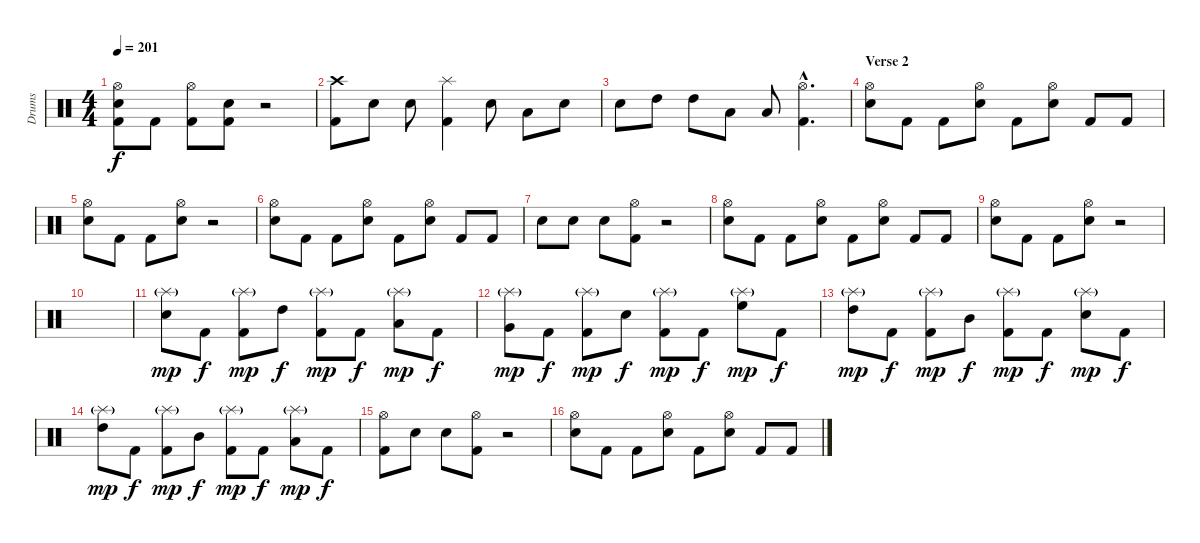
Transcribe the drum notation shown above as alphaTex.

\track ("Drums" "Drums") {instrument percussion}
\staff {score}
\articulation defaults
\ts (4 4)
\tempo 201
\clef neutral
\ks c
("Hi-Hat (open)" "Snare (hit) 2" "Kick (hit) 2").8{dy f} "Kick (hit) 2".8 ("Hi-Hat (open)" "Kick (hit) 2").8 ("Snare (hit) 2" "Kick (hit) 2").8 r.2 |
("Crash high (hit)" "Kick (hit) 2").8 "Snare (hit) 2".8 "Snare (hit) 2".8 ("Splash (hit)" "Kick (hit) 2").4 "Snare (hit) 2".8 "Low Tom (hit)".8 "Snare (hit) 2".8 |
"Snare (hit) 2".8 "High Tom (hit)".8 "High Tom (hit)".8 "Low Tom (hit)".8 "Low Tom (hit)".8 ("Hi-Hat (open)"{hac} "Kick (hit) 2"{hac}).4{d} |
\section ("" "Verse 2")
("Hi-Hat (open)" "Snare (hit) 2").8 "Kick (hit) 2".8 "Kick (hit) 2".8 ("Hi-Hat (open)" "Snare (hit) 2").8 "Kick (hit) 2".8 ("Hi-Hat (open)" "Snare (hit) 2").8 "Kick (hit) 2".8 "Kick (hit) 2".8 |
("Hi-Hat (open)" "Snare (hit) 2").8 "Kick (hit) 2".8 "Kick (hit) 2".8 ("Hi-Hat (open)" "Snare (hit) 2").8 r.2 |
("Hi-Hat (open)" "Snare (hit) 2").8 "Kick (hit) 2".8 "Kick (hit) 2".8 ("Hi-Hat (open)" "Snare (hit) 2").8 "Kick (hit) 2".8 ("Hi-Hat (open)" "Snare (hit) 2").8 "Kick (hit) 2".8 "Kick (hit) 2".8 |
"Snare (hit) 2".8 "Snare (hit) 2".8 "Snare (hit) 2".8 ("Hi-Hat (open)" "Kick (hit) 2").8 r.2 |
("Hi-Hat (open)" "Snare (hit) 2").8 "Kick (hit) 2".8 "Kick (hit) 2".8 ("Hi-Hat (open)" "Snare (hit) 2").8 "Kick (hit) 2".8 ("Hi-Hat (open)" "Snare (hit) 2").8 "Kick (hit) 2".8 "Kick (hit) 2".8 |
("Hi-Hat (open)" "Snare (hit) 2").8 "Kick (hit) 2".8 "Kick (hit) 2".8 ("Hi-Hat (open)" "Snare (hit) 2").8 r.2 |
|
("Splash (hit)"{g} "Snare (hit) 2").8{dy mp} "Kick (hit) 2".8{dy f} ("Splash (hit)"{g} "Kick (hit) 2").8{dy mp} "High Tom (hit)".8{dy f} ("Splash (hit)"{g} "Kick (hit) 2").8{dy mp} "Kick (hit) 2".8{dy f} ("Splash (hit)"{g} "Low Tom (hit)").8{dy mp} "Kick (hit) 2".8{dy f} |
("Splash (hit)"{g} "Very Low Tom (hit)").8{dy mp} "Kick (hit) 2".8{dy f} ("Splash (hit)"{g} "Kick (hit) 2").8{dy mp} "Snare (hit) 2".8{dy f} ("Splash (hit)"{g} "Kick (hit) 2").8{dy mp} "Kick (hit) 2".8{dy f} ("Splash (hit)"{g} "High Floor Tom (hit)").8{dy mp} "Kick (hit) 2".8{dy f} |
("Splash (hit)"{g} "High Tom (hit)").8{dy mp} "Kick (hit) 2".8{dy f} ("Splash (hit)"{g} "Kick (hit) 2").8{dy mp} "Mid Tom (hit)".8{dy f} ("Splash (hit)"{g} "Kick (hit) 2").8{dy mp} "Kick (hit) 2".8{dy f} ("Splash (hit)"{g} "Snare (hit) 2").8{dy mp} "Kick (hit) 2".8{dy f} |
("Splash (hit)"{g} "High Tom (hit)").8{dy mp} "Kick (hit) 2".8{dy f} ("Splash (hit)"{g} "Kick (hit) 2").8{dy mp} "Mid Tom (hit)".8{dy f} ("Splash (hit)"{g} "Kick (hit) 2").8{dy mp} "Kick (hit) 2".8{dy f} ("Splash (hit)"{g} "Low Tom (hit)").8{dy mp} "Kick (hit) 2".8{dy f} |
("Hi-Hat (open)" "Kick (hit) 2").8 "Snare (hit) 2".8 "Snare (hit) 2".8 ("Hi-Hat (open)" "Kick (hit) 2").8 r.2 |
("Hi-Hat (open)" "Snare (hit) 2").8 "Kick (hit) 2".8 "Kick (hit) 2".8 ("Hi-Hat (open)" "Snare (hit) 2").8 "Kick (hit) 2".8 ("Hi-Hat (open)" "Snare (hit) 2").8 "Kick (hit) 2".8 "Kick (hit) 2".8
